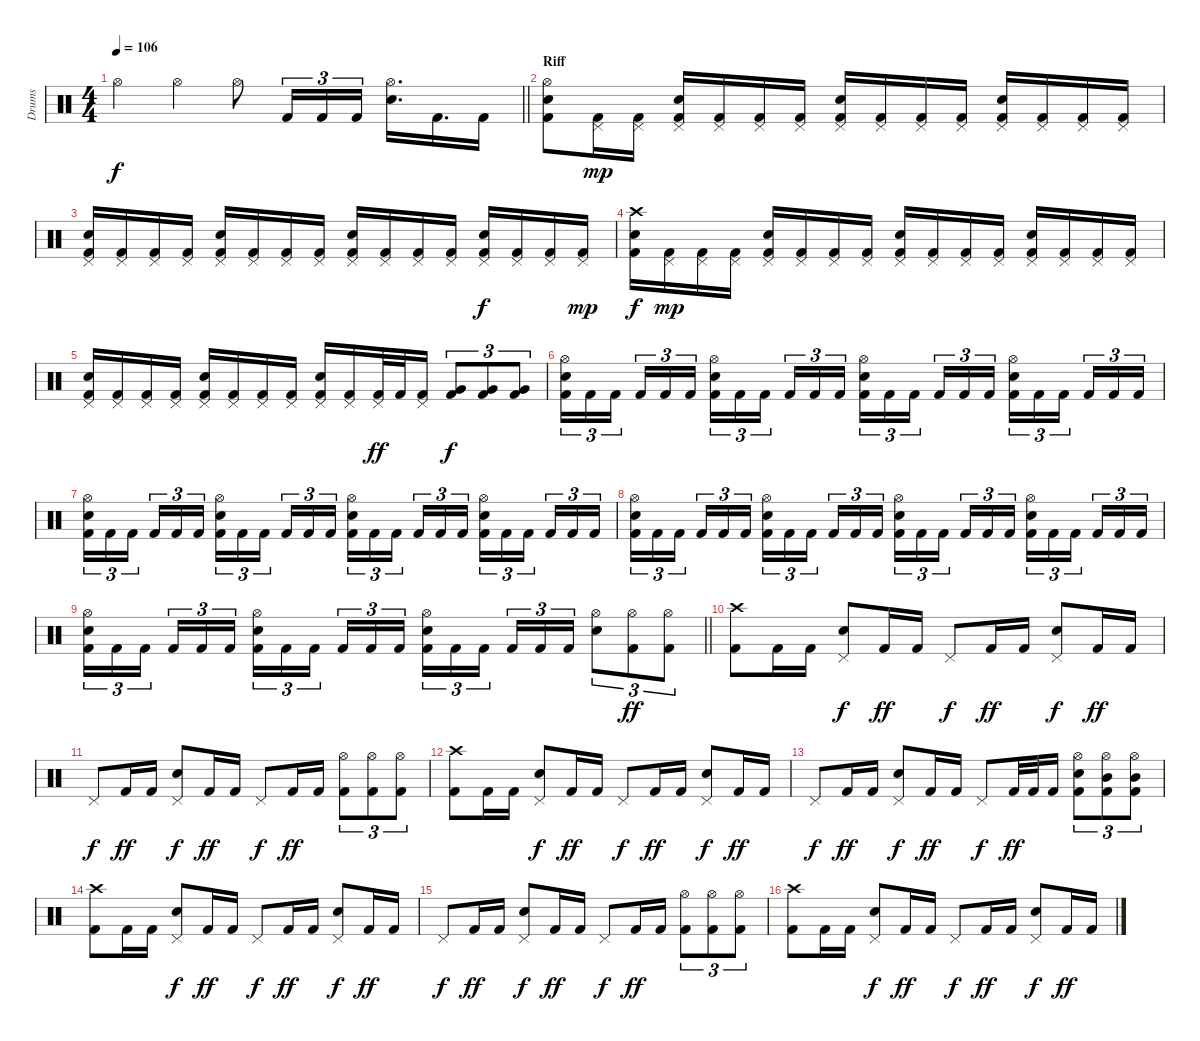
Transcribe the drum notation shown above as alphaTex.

\track ("Drums" "Drums") {instrument percussion}
\staff {score}
\articulation defaults
\ts (4 4)
\tempo 106
\clef neutral
\barLineRight lightlight
\ks c "Hi-Hat (open)".4{dy f} "Hi-Hat (open)".4 "Hi-Hat (open)".8 "Kick (hit) 2".16{tu (3 2)} "Kick (hit) 2".16{tu (3 2)} "Kick (hit) 2".16{tu (3 2)}
("Hi-Hat (open)" "Snare (hit) 2").16{d} "Kick (hit) 2".16{d} "Kick (hit) 2".16 |
\section ("" "Riff")
("Hi-Hat (open)" "Snare (hit) 2" "Kick (hit) 2").8 ("Pedal Hi-Hat (hit)" "Kick (hit) 2").16{dy mp} ("Pedal Hi-Hat (hit)" "Kick (hit) 2").16 ("Pedal Hi-Hat (hit)" "Snare (hit) 2" "Kick (hit) 2").16 ("Pedal Hi-Hat (hit)" "Kick (hit) 2").16 ("Pedal Hi-Hat (hit)" "Kick (hit) 2").16 ("Pedal Hi-Hat (hit)" "Kick (hit) 2").16 ("Pedal Hi-Hat (hit)" "Snare (hit) 2" "Kick (hit) 2").16 ("Pedal Hi-Hat (hit)" "Kick (hit) 2").16 ("Pedal Hi-Hat (hit)" "Kick (hit) 2").16 ("Pedal Hi-Hat (hit)" "Kick (hit) 2").16 ("Pedal Hi-Hat (hit)" "Snare (hit) 2" "Kick (hit) 2").16 ("Pedal Hi-Hat (hit)" "Kick (hit) 2").16 ("Pedal Hi-Hat (hit)" "Kick (hit) 2").16 ("Pedal Hi-Hat (hit)" "Kick (hit) 2").16 |
("Pedal Hi-Hat (hit)" "Snare (hit) 2" "Kick (hit) 2").16 ("Pedal Hi-Hat (hit)" "Kick (hit) 2").16 ("Pedal Hi-Hat (hit)" "Kick (hit) 2").16 ("Pedal Hi-Hat (hit)" "Kick (hit) 2").16 ("Pedal Hi-Hat (hit)" "Snare (hit) 2" "Kick (hit) 2").16 ("Pedal Hi-Hat (hit)" "Kick (hit) 2").16 ("Pedal Hi-Hat (hit)" "Kick (hit) 2").16 ("Pedal Hi-Hat (hit)" "Kick (hit) 2").16 ("Pedal Hi-Hat (hit)" "Snare (hit) 2" "Kick (hit) 2").16 ("Pedal Hi-Hat (hit)" "Kick (hit) 2").16 ("Pedal Hi-Hat (hit)" "Kick (hit) 2").16 ("Pedal Hi-Hat (hit)" "Kick (hit) 2").16 ("Pedal Hi-Hat (hit)" "Snare (hit) 2" "Kick (hit) 2").16{dy f} ("Pedal Hi-Hat (hit)" "Kick (hit) 2").16 ("Pedal Hi-Hat (hit)" "Kick (hit) 2").16 ("Pedal Hi-Hat (hit)" "Kick (hit) 2").16{dy mp} |
("Crash high (hit)" "Snare (hit) 2" "Kick (hit) 2").16{dy f} ("Pedal Hi-Hat (hit)" "Kick (hit) 2").16{dy mp} ("Pedal Hi-Hat (hit)" "Kick (hit) 2").16 ("Pedal Hi-Hat (hit)" "Kick (hit) 2").16 ("Pedal Hi-Hat (hit)" "Snare (hit) 2" "Kick (hit) 2").16 ("Pedal Hi-Hat (hit)" "Kick (hit) 2").16 ("Pedal Hi-Hat (hit)" "Kick (hit) 2").16 ("Pedal Hi-Hat (hit)" "Kick (hit) 2").16 ("Pedal Hi-Hat (hit)" "Snare (hit) 2" "Kick (hit) 2").16 ("Pedal Hi-Hat (hit)" "Kick (hit) 2").16 ("Pedal Hi-Hat (hit)" "Kick (hit) 2").16 ("Pedal Hi-Hat (hit)" "Kick (hit) 2").16 ("Pedal Hi-Hat (hit)" "Snare (hit) 2" "Kick (hit) 2").16 ("Pedal Hi-Hat (hit)" "Kick (hit) 2").16 ("Pedal Hi-Hat (hit)" "Kick (hit) 2").16 ("Pedal Hi-Hat (hit)" "Kick (hit) 2").16 |
("Pedal Hi-Hat (hit)" "Snare (hit) 2" "Kick (hit) 2").16 ("Pedal Hi-Hat (hit)" "Kick (hit) 2").16 ("Pedal Hi-Hat (hit)" "Kick (hit) 2").16 ("Pedal Hi-Hat (hit)" "Kick (hit) 2").16 ("Pedal Hi-Hat (hit)" "Snare (hit) 2" "Kick (hit) 2").16 ("Pedal Hi-Hat (hit)" "Kick (hit) 2").16 ("Pedal Hi-Hat (hit)" "Kick (hit) 2").16 ("Pedal Hi-Hat (hit)" "Kick (hit) 2").16 ("Pedal Hi-Hat (hit)" "Snare (hit) 2" "Kick (hit) 2").16 ("Pedal Hi-Hat (hit)" "Kick (hit) 2").16 ("Pedal Hi-Hat (hit)" "Kick (hit) 2").32{dy ff} "Kick (hit) 2".32 ("Pedal Hi-Hat (hit)" "Kick (hit) 2").16 ("Very Low Tom (hit)" "Kick (hit) 2").8{tu (3 2) dy f} ("Very Low Tom (hit)" "Kick (hit) 2").8{tu (3 2)} ("Very Low Tom (hit)" "Kick (hit) 2").8{tu (3 2)} |
("Hi-Hat (open)" "Snare (hit) 2" "Kick (hit) 2").16{tu (3 2)} "Kick (hit) 2".16{tu (3 2)} "Kick (hit) 2".16{tu (3 2) beam splitsecondary} "Kick (hit) 2".16{tu (3 2)} "Kick (hit) 2".16{tu (3 2)} "Kick (hit) 2".16{tu (3 2)} ("Hi-Hat (open)" "Snare (hit) 2" "Kick (hit) 2").16{tu (3 2)} "Kick (hit) 2".16{tu (3 2)} "Kick (hit) 2".16{tu (3 2) beam splitsecondary} "Kick (hit) 2".16{tu (3 2)} "Kick (hit) 2".16{tu (3 2)} "Kick (hit) 2".16{tu (3 2)} ("Hi-Hat (open)" "Snare (hit) 2" "Kick (hit) 2").16{tu (3 2)} "Kick (hit) 2".16{tu (3 2)} "Kick (hit) 2".16{tu (3 2) beam splitsecondary} "Kick (hit) 2".16{tu (3 2)} "Kick (hit) 2".16{tu (3 2)} "Kick (hit) 2".16{tu (3 2)} ("Hi-Hat (open)" "Snare (hit) 2" "Kick (hit) 2").16{tu (3 2)} "Kick (hit) 2".16{tu (3 2)} "Kick (hit) 2".16{tu (3 2) beam splitsecondary} "Kick (hit) 2".16{tu (3 2)} "Kick (hit) 2".16{tu (3 2)} "Kick (hit) 2".16{tu (3 2)} |
("Hi-Hat (open)" "Snare (hit) 2" "Kick (hit) 2").16{tu (3 2)} "Kick (hit) 2".16{tu (3 2)} "Kick (hit) 2".16{tu (3 2) beam splitsecondary} "Kick (hit) 2".16{tu (3 2)} "Kick (hit) 2".16{tu (3 2)} "Kick (hit) 2".16{tu (3 2)} ("Hi-Hat (open)" "Snare (hit) 2" "Kick (hit) 2").16{tu (3 2)} "Kick (hit) 2".16{tu (3 2)} "Kick (hit) 2".16{tu (3 2) beam splitsecondary} "Kick (hit) 2".16{tu (3 2)} "Kick (hit) 2".16{tu (3 2)} "Kick (hit) 2".16{tu (3 2)} ("Hi-Hat (open)" "Snare (hit) 2" "Kick (hit) 2").16{tu (3 2)} "Kick (hit) 2".16{tu (3 2)} "Kick (hit) 2".16{tu (3 2) beam splitsecondary} "Kick (hit) 2".16{tu (3 2)} "Kick (hit) 2".16{tu (3 2)} "Kick (hit) 2".16{tu (3 2)} ("Hi-Hat (open)" "Snare (hit) 2" "Kick (hit) 2").16{tu (3 2)} "Kick (hit) 2".16{tu (3 2)} "Kick (hit) 2".16{tu (3 2) beam splitsecondary} "Kick (hit) 2".16{tu (3 2)} "Kick (hit) 2".16{tu (3 2)} "Kick (hit) 2".16{tu (3 2)} |
("Hi-Hat (open)" "Snare (hit) 2" "Kick (hit) 2").16{tu (3 2)} "Kick (hit) 2".16{tu (3 2)} "Kick (hit) 2".16{tu (3 2) beam splitsecondary} "Kick (hit) 2".16{tu (3 2)} "Kick (hit) 2".16{tu (3 2)} "Kick (hit) 2".16{tu (3 2)} ("Hi-Hat (open)" "Snare (hit) 2" "Kick (hit) 2").16{tu (3 2)} "Kick (hit) 2".16{tu (3 2)} "Kick (hit) 2".16{tu (3 2) beam splitsecondary} "Kick (hit) 2".16{tu (3 2)} "Kick (hit) 2".16{tu (3 2)} "Kick (hit) 2".16{tu (3 2)} ("Hi-Hat (open)" "Snare (hit) 2" "Kick (hit) 2").16{tu (3 2)} "Kick (hit) 2".16{tu (3 2)} "Kick (hit) 2".16{tu (3 2) beam splitsecondary} "Kick (hit) 2".16{tu (3 2)} "Kick (hit) 2".16{tu (3 2)} "Kick (hit) 2".16{tu (3 2)} ("Hi-Hat (open)" "Snare (hit) 2" "Kick (hit) 2").16{tu (3 2)} "Kick (hit) 2".16{tu (3 2)} "Kick (hit) 2".16{tu (3 2) beam splitsecondary} "Kick (hit) 2".16{tu (3 2)} "Kick (hit) 2".16{tu (3 2)} "Kick (hit) 2".16{tu (3 2)} |
\barLineRight lightlight
("Hi-Hat (open)" "Snare (hit) 2" "Kick (hit) 2").16{tu (3 2)} "Kick (hit) 2".16{tu (3 2)} "Kick (hit) 2".16{tu (3 2) beam splitsecondary} "Kick (hit) 2".16{tu (3 2)} "Kick (hit) 2".16{tu (3 2)} "Kick (hit) 2".16{tu (3 2)} ("Hi-Hat (open)" "Snare (hit) 2" "Kick (hit) 2").16{tu (3 2)} "Kick (hit) 2".16{tu (3 2)} "Kick (hit) 2".16{tu (3 2) beam splitsecondary} "Kick (hit) 2".16{tu (3 2)} "Kick (hit) 2".16{tu (3 2)} "Kick (hit) 2".16{tu (3 2)} ("Hi-Hat (open)" "Snare (hit) 2" "Kick (hit) 2").16{tu (3 2)} "Kick (hit) 2".16{tu (3 2)} "Kick (hit) 2".16{tu (3 2) beam splitsecondary} "Kick (hit) 2".16{tu (3 2)} "Kick (hit) 2".16{tu (3 2)} "Kick (hit) 2".16{tu (3 2)} ("Hi-Hat (open)" "Snare (hit) 2").8{tu (3 2)} ("Hi-Hat (open)" "Kick (hit) 2").8{tu (3 2) dy ff} ("Hi-Hat (open)" "Kick (hit) 2").8{tu (3 2)} |
("Crash high (hit)" "Kick (hit) 2").8 "Kick (hit) 2".16 "Kick (hit) 2".16 ("Pedal Hi-Hat (hit)" "Snare (hit) 2").8{dy f} "Kick (hit) 2".16{dy ff} "Kick (hit) 2".16 "Pedal Hi-Hat (hit)".8{dy f} "Kick (hit) 2".16{dy ff} "Kick (hit) 2".16 ("Pedal Hi-Hat (hit)" "Snare (hit) 2").8{dy f} "Kick (hit) 2".16{dy ff} "Kick (hit) 2".16 |
"Pedal Hi-Hat (hit)".8{dy f} "Kick (hit) 2".16{dy ff} "Kick (hit) 2".16 ("Pedal Hi-Hat (hit)" "Snare (hit) 2").8{dy f} "Kick (hit) 2".16{dy ff} "Kick (hit) 2".16 "Pedal Hi-Hat (hit)".8{dy f} "Kick (hit) 2".16{dy ff} "Kick (hit) 2".16 ("Hi-Hat (open)" "Kick (hit) 2").8{tu (3 2)} ("Hi-Hat (open)" "Kick (hit) 2").8{tu (3 2)} ("Hi-Hat (open)" "Kick (hit) 2").8{tu (3 2)} |
("Crash high (hit)" "Kick (hit) 2").8 "Kick (hit) 2".16 "Kick (hit) 2".16 ("Pedal Hi-Hat (hit)" "Snare (hit) 2").8{dy f} "Kick (hit) 2".16{dy ff} "Kick (hit) 2".16 "Pedal Hi-Hat (hit)".8{dy f} "Kick (hit) 2".16{dy ff} "Kick (hit) 2".16 ("Pedal Hi-Hat (hit)" "Snare (hit) 2").8{dy f} "Kick (hit) 2".16{dy ff} "Kick (hit) 2".16 |
"Pedal Hi-Hat (hit)".8{dy f} "Kick (hit) 2".16{dy ff} "Kick (hit) 2".16 ("Pedal Hi-Hat (hit)" "Snare (hit) 2").8{dy f} "Kick (hit) 2".16{dy ff} "Kick (hit) 2".16 "Pedal Hi-Hat (hit)".8{dy f} "Kick (hit) 2".32{dy ff} "Kick (hit) 2".32 "Kick (hit) 2".16 ("Hi-Hat (open)" "Snare (hit) 2" "Kick (hit) 2").8{tu (3 2)} ("Hi-Hat (open)" "Mid Tom (hit)" "Kick (hit) 2").8{tu (3 2)} ("Hi-Hat (open)" "Mid Tom (hit)" "Kick (hit) 2").8{tu (3 2)} |
("Crash high (hit)" "Kick (hit) 2").8 "Kick (hit) 2".16 "Kick (hit) 2".16 ("Pedal Hi-Hat (hit)" "Snare (hit) 2").8{dy f} "Kick (hit) 2".16{dy ff} "Kick (hit) 2".16 "Pedal Hi-Hat (hit)".8{dy f} "Kick (hit) 2".16{dy ff} "Kick (hit) 2".16 ("Pedal Hi-Hat (hit)" "Snare (hit) 2").8{dy f} "Kick (hit) 2".16{dy ff} "Kick (hit) 2".16 |
"Pedal Hi-Hat (hit)".8{dy f} "Kick (hit) 2".16{dy ff} "Kick (hit) 2".16 ("Pedal Hi-Hat (hit)" "Snare (hit) 2").8{dy f} "Kick (hit) 2".16{dy ff} "Kick (hit) 2".16 "Pedal Hi-Hat (hit)".8{dy f} "Kick (hit) 2".16{dy ff} "Kick (hit) 2".16 ("Hi-Hat (open)" "Kick (hit) 2").8{tu (3 2)} ("Hi-Hat (open)" "Kick (hit) 2").8{tu (3 2)} ("Hi-Hat (open)" "Kick (hit) 2").8{tu (3 2)} |
("Crash high (hit)" "Kick (hit) 2").8 "Kick (hit) 2".16 "Kick (hit) 2".16 ("Pedal Hi-Hat (hit)" "Snare (hit) 2").8{dy f} "Kick (hit) 2".16{dy ff} "Kick (hit) 2".16 "Pedal Hi-Hat (hit)".8{dy f} "Kick (hit) 2".16{dy ff} "Kick (hit) 2".16 ("Pedal Hi-Hat (hit)" "Snare (hit) 2").8{dy f} "Kick (hit) 2".16{dy ff} "Kick (hit) 2".16
